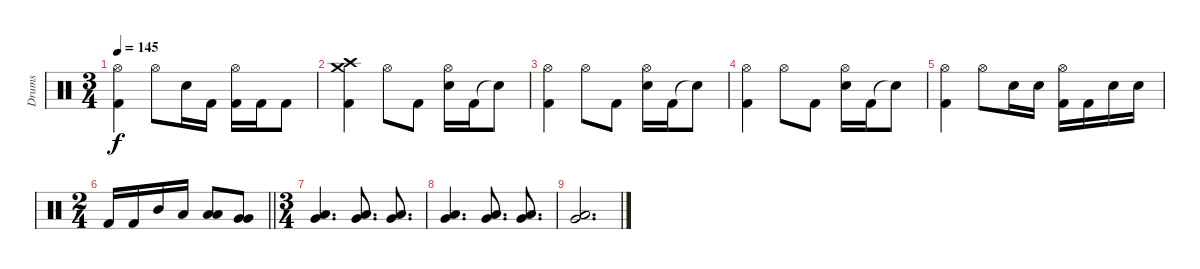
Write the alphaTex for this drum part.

\track ("Drums" "Drums") {instrument percussion}
\staff {score}
\articulation defaults
\ts (3 4)
\tempo 145
\clef neutral
\ks c
("Hi-Hat (open)" "Kick (hit) 2").4{dy f} "Hi-Hat (open)".8 "Electric Snare (hit)".16 "Kick (hit) 2".16 ("Hi-Hat (open)" "Kick (hit) 2").16 "Kick (hit) 2".16 "Kick (hit) 2".8 |
("Crash medium (hit)" "Crash high (hit)" "Kick (hit) 2").4 "Hi-Hat (open)".8 "Kick (hit) 2".8 ("Hi-Hat (open)" "Electric Snare (hit)").16 "Kick (hit) 2".16 "Snare (hit)"{t}.8 |
("Hi-Hat (open)" "Kick (hit) 2").4 "Hi-Hat (open)".8 "Kick (hit) 2".8 ("Hi-Hat (open)" "Electric Snare (hit)").16 "Kick (hit) 2".16 "Snare (hit)"{t}.8 |
("Hi-Hat (open)" "Kick (hit) 2").4 "Hi-Hat (open)".8 "Kick (hit) 2".8 ("Hi-Hat (open)" "Electric Snare (hit)").16 "Kick (hit) 2".16 "Snare (hit)"{t}.8 |
("Hi-Hat (open)" "Kick (hit) 2").4 "Hi-Hat (open)".8 "Electric Snare (hit)".16 "Electric Snare (hit)".16 ("Hi-Hat (open)" "Kick (hit) 2").16 "Kick (hit) 2".16 "Electric Snare (hit)".16 "Electric Snare (hit)".16 |
\ts (2 4)
\barLineRight lightlight "Kick (hit) 2".16 "Kick (hit) 2".16 "Mid Tom (hit)".16 "Low Tom (hit)".16
("Low Tom (hit)" "Low Tom (hit)").8{bu 120} ("Very Low Tom (hit)" "Very Low Tom (hit)").8{bu 120} |
\ts (3 4)
\section ("" "")
("Very Low Tom (hit)" "Low Floor Tom (hit)").4{d} ("Very Low Tom (hit)" "Low Floor Tom (hit)").8{d} ("Very Low Tom (hit)" "Low Floor Tom (hit)").8{d} |
("Very Low Tom (hit)" "Low Floor Tom (hit)").4{d} ("Very Low Tom (hit)" "Low Floor Tom (hit)").8{d} ("Very Low Tom (hit)" "Low Floor Tom (hit)").8{d} |
("Very Low Tom (hit)" "Low Floor Tom (hit)").2{d}
